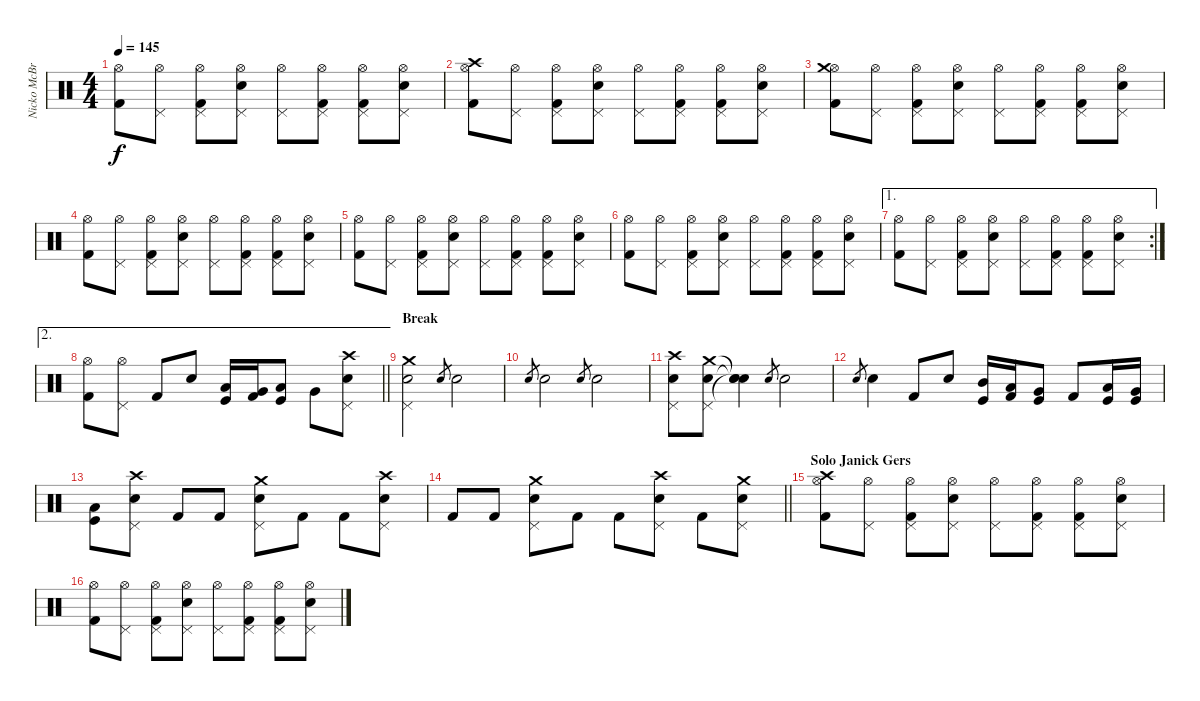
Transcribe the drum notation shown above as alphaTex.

\track ("Nicko McBrain" "Nicko McBr") {instrument percussion}
\staff {score}
\articulation defaults
\ts (4 4)
\tempo 145
\clef neutral
\ks c
("Kick (hit) 2" "Hi-Hat (open)").8{dy f} ("Pedal Hi-Hat (hit)" "Hi-Hat (open)").8 ("Kick (hit) 2" "Pedal Hi-Hat (hit)" "Hi-Hat (open)").8 ("Snare (hit) 2" "Pedal Hi-Hat (hit)" "Hi-Hat (open)").8 ("Pedal Hi-Hat (hit)" "Hi-Hat (open)").8 ("Kick (hit) 2" "Pedal Hi-Hat (hit)" "Hi-Hat (open)").8 ("Kick (hit) 2" "Pedal Hi-Hat (hit)" "Hi-Hat (open)").8 ("Snare (hit) 2" "Pedal Hi-Hat (hit)" "Hi-Hat (open)").8 |
("Kick (hit) 2" "Hi-Hat (open)" "Crash high (hit)").8 ("Pedal Hi-Hat (hit)" "Hi-Hat (open)").8 ("Kick (hit) 2" "Pedal Hi-Hat (hit)" "Hi-Hat (open)").8 ("Snare (hit) 2" "Pedal Hi-Hat (hit)" "Hi-Hat (open)").8 ("Pedal Hi-Hat (hit)" "Hi-Hat (open)").8 ("Kick (hit) 2" "Pedal Hi-Hat (hit)" "Hi-Hat (open)").8 ("Kick (hit) 2" "Pedal Hi-Hat (hit)" "Hi-Hat (open)").8 ("Snare (hit) 2" "Pedal Hi-Hat (hit)" "Hi-Hat (open)").8 |
("Kick (hit) 2" "Hi-Hat (open)" "Crash medium (hit)").8 ("Pedal Hi-Hat (hit)" "Hi-Hat (open)").8 ("Kick (hit) 2" "Pedal Hi-Hat (hit)" "Hi-Hat (open)").8 ("Snare (hit) 2" "Pedal Hi-Hat (hit)" "Hi-Hat (open)").8 ("Pedal Hi-Hat (hit)" "Hi-Hat (open)").8 ("Kick (hit) 2" "Pedal Hi-Hat (hit)" "Hi-Hat (open)").8 ("Kick (hit) 2" "Pedal Hi-Hat (hit)" "Hi-Hat (open)").8 ("Snare (hit) 2" "Pedal Hi-Hat (hit)" "Hi-Hat (open)").8 |
("Kick (hit) 2" "Hi-Hat (open)").8 ("Pedal Hi-Hat (hit)" "Hi-Hat (open)").8 ("Kick (hit) 2" "Pedal Hi-Hat (hit)" "Hi-Hat (open)").8 ("Snare (hit) 2" "Pedal Hi-Hat (hit)" "Hi-Hat (open)").8 ("Pedal Hi-Hat (hit)" "Hi-Hat (open)").8 ("Kick (hit) 2" "Pedal Hi-Hat (hit)" "Hi-Hat (open)").8 ("Kick (hit) 2" "Pedal Hi-Hat (hit)" "Hi-Hat (open)").8 ("Snare (hit) 2" "Pedal Hi-Hat (hit)" "Hi-Hat (open)").8 |
("Kick (hit) 2" "Hi-Hat (open)").8 ("Pedal Hi-Hat (hit)" "Hi-Hat (open)").8 ("Kick (hit) 2" "Pedal Hi-Hat (hit)" "Hi-Hat (open)").8 ("Snare (hit) 2" "Pedal Hi-Hat (hit)" "Hi-Hat (open)").8 ("Pedal Hi-Hat (hit)" "Hi-Hat (open)").8 ("Kick (hit) 2" "Pedal Hi-Hat (hit)" "Hi-Hat (open)").8 ("Kick (hit) 2" "Pedal Hi-Hat (hit)" "Hi-Hat (open)").8 ("Snare (hit) 2" "Pedal Hi-Hat (hit)" "Hi-Hat (open)").8 |
("Kick (hit) 2" "Hi-Hat (open)").8 ("Pedal Hi-Hat (hit)" "Hi-Hat (open)").8 ("Kick (hit) 2" "Pedal Hi-Hat (hit)" "Hi-Hat (open)").8 ("Snare (hit) 2" "Pedal Hi-Hat (hit)" "Hi-Hat (open)").8 ("Pedal Hi-Hat (hit)" "Hi-Hat (open)").8 ("Kick (hit) 2" "Pedal Hi-Hat (hit)" "Hi-Hat (open)").8 ("Kick (hit) 2" "Pedal Hi-Hat (hit)" "Hi-Hat (open)").8 ("Snare (hit) 2" "Pedal Hi-Hat (hit)" "Hi-Hat (open)").8 |
\ae 1
\rc 2
("Kick (hit) 2" "Hi-Hat (open)").8 ("Pedal Hi-Hat (hit)" "Hi-Hat (open)").8 ("Kick (hit) 2" "Pedal Hi-Hat (hit)" "Hi-Hat (open)").8 ("Snare (hit) 2" "Pedal Hi-Hat (hit)" "Hi-Hat (open)").8 ("Pedal Hi-Hat (hit)" "Hi-Hat (open)").8 ("Kick (hit) 2" "Pedal Hi-Hat (hit)" "Hi-Hat (open)").8 ("Kick (hit) 2" "Pedal Hi-Hat (hit)" "Hi-Hat (open)").8 ("Snare (hit) 2" "Pedal Hi-Hat (hit)" "Hi-Hat (open)").8 |
\ae 2
\barLineRight lightlight
("Kick (hit) 2" "Hi-Hat (open)").8 ("Pedal Hi-Hat (hit)" "Hi-Hat (open)").8 "Kick (hit) 2".8 "Snare (hit) 2".8 ("Low Tom (hit)" "Kick (hit)").16 ("Very Low Tom (hit)" "Kick (hit) 2").16 ("Low Floor Tom (hit)" "Kick (hit)").8 "Very Low Tom (hit)".8 ("Snare (hit) 2" "Pedal Hi-Hat (hit)" "Crash high (hit)").8 |
\section ("" "Break")
("Snare (hit) 2" "Pedal Hi-Hat (hit)" "Crash medium (hit)").2 "Snare (hit) 2".8{gr} "Snare (hit) 2".2 |
"Snare (hit) 2".8{gr} "Snare (hit) 2".2 "Snare (hit) 2".8{gr} "Snare (hit) 2".2 |
("Snare (hit) 2" "Pedal Hi-Hat (hit)" "Crash high (hit)").8 ("Snare (hit) 2" "Pedal Hi-Hat (hit)" "Crash medium (hit)").8 ("Snare (hit)"{t} "Snare (hit)"{t} "Snare (hit)"{t}).4 "Snare (hit) 2".8{gr} "Snare (hit) 2".2 |
"Snare (hit) 2".8{gr} "Snare (hit) 2".4 "Kick (hit) 2".8 "Snare (hit) 2".8 ("Mid Tom (hit)" "Kick (hit)").16 ("Low Tom (hit)" "Kick (hit) 2").16 ("Very Low Tom (hit)" "Kick (hit)").8 "Kick (hit) 2".8 ("Low Tom (hit)" "Kick (hit)").16 ("Very Low Tom (hit)" "Kick (hit)").16 |
("Low Floor Tom (hit)" "Kick (hit)").8 ("Snare (hit) 2" "Pedal Hi-Hat (hit)" "Crash high (hit)").8 "Kick (hit) 2".8 "Kick (hit) 2".8 ("Snare (hit) 2" "Pedal Hi-Hat (hit)" "Crash medium (hit)").8 "Kick (hit) 2".8 "Kick (hit) 2".8 ("Snare (hit) 2" "Pedal Hi-Hat (hit)" "Crash high (hit)").8 |
\barLineRight lightlight "Kick (hit) 2".8 "Kick (hit) 2".8
("Snare (hit) 2" "Pedal Hi-Hat (hit)" "Crash medium (hit)").8 "Kick (hit) 2".8 "Kick (hit) 2".8 ("Snare (hit) 2" "Pedal Hi-Hat (hit)" "Crash high (hit)").8 "Kick (hit) 2".8 ("Snare (hit) 2" "Pedal Hi-Hat (hit)" "Crash medium (hit)").8 |
\section ("" "Solo Janick Gers")
("Kick (hit) 2" "Hi-Hat (open)" "Crash high (hit)").8 ("Pedal Hi-Hat (hit)" "Hi-Hat (open)").8 ("Kick (hit) 2" "Pedal Hi-Hat (hit)" "Hi-Hat (open)").8 ("Snare (hit) 2" "Pedal Hi-Hat (hit)" "Hi-Hat (open)").8 ("Pedal Hi-Hat (hit)" "Hi-Hat (open)").8 ("Kick (hit) 2" "Pedal Hi-Hat (hit)" "Hi-Hat (open)").8 ("Kick (hit) 2" "Pedal Hi-Hat (hit)" "Hi-Hat (open)").8 ("Snare (hit) 2" "Pedal Hi-Hat (hit)" "Hi-Hat (open)").8 |
("Kick (hit) 2" "Hi-Hat (open)").8 ("Pedal Hi-Hat (hit)" "Hi-Hat (open)").8 ("Kick (hit) 2" "Pedal Hi-Hat (hit)" "Hi-Hat (open)").8 ("Snare (hit) 2" "Pedal Hi-Hat (hit)" "Hi-Hat (open)").8 ("Pedal Hi-Hat (hit)" "Hi-Hat (open)").8 ("Kick (hit) 2" "Pedal Hi-Hat (hit)" "Hi-Hat (open)").8 ("Kick (hit) 2" "Pedal Hi-Hat (hit)" "Hi-Hat (open)").8 ("Snare (hit) 2" "Pedal Hi-Hat (hit)" "Hi-Hat (open)").8
